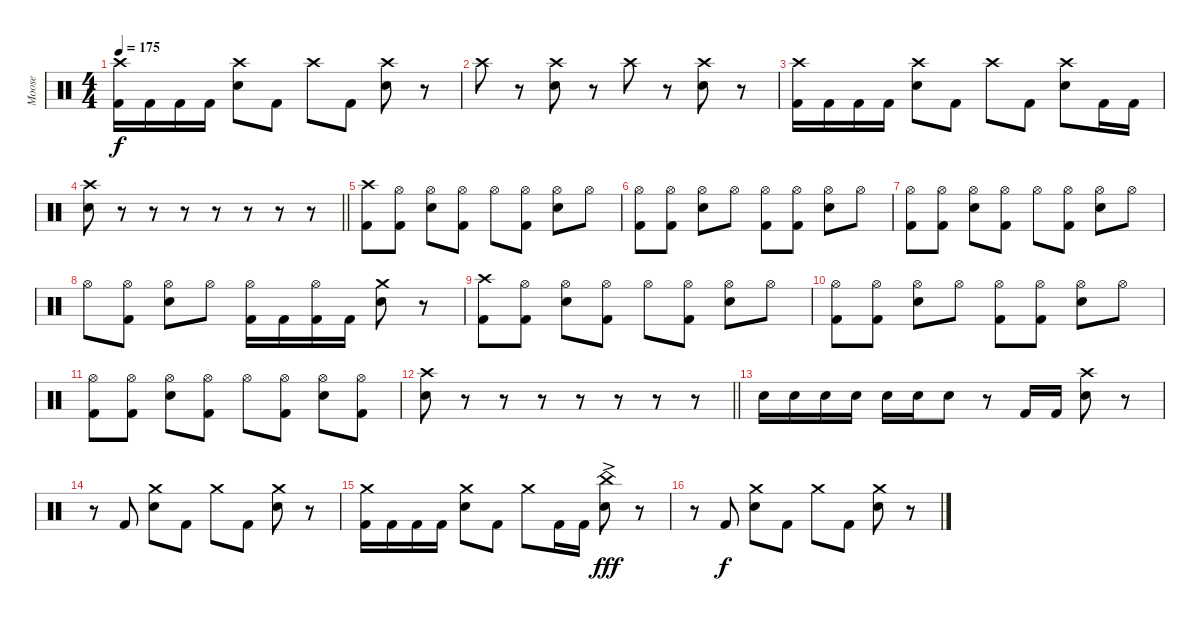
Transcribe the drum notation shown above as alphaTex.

\track ("Moose" "Moose") {instrument percussion}
\staff {score}
\articulation defaults
\ts (4 4)
\tempo 175
\clef neutral
\ks c
("Crash high (hit)" "Kick (hit) 2").16{dy f} "Kick (hit) 2".16 "Kick (hit) 2".16 "Kick (hit) 2".16 ("Crash high (hit)" "Electric Snare (hit)").8 "Kick (hit) 2".8 "Crash high (hit)".8 "Kick (hit) 2".8 ("Crash high (hit)" "Electric Snare (hit)").8 r.8 |
"Crash high (hit)".8 r.8 ("Crash high (hit)" "Electric Snare (hit)").8 r.8 "Crash high (hit)".8 r.8 ("Crash high (hit)" "Electric Snare (hit)").8 r.8 |
("Crash high (hit)" "Kick (hit) 2").16 "Kick (hit) 2".16 "Kick (hit) 2".16 "Kick (hit) 2".16 ("Crash high (hit)" "Electric Snare (hit)").8 "Kick (hit) 2".8 "Crash high (hit)".8 "Kick (hit) 2".8 ("Crash high (hit)" "Electric Snare (hit)").8 "Kick (hit) 2".16 "Kick (hit) 2".16 |
\barLineRight lightlight
("Crash high (hit)" "Electric Snare (hit)").8 r.8 r.8 r.8 r.8 r.8 r.8 r.8 |
("Crash high (hit)" "Kick (hit) 2").8 ("Hi-Hat (open)" "Kick (hit) 2").8 ("Hi-Hat (open)" "Electric Snare (hit)").8 ("Hi-Hat (open)" "Kick (hit) 2").8 "Hi-Hat (open)".8 ("Hi-Hat (open)" "Kick (hit) 2").8 ("Hi-Hat (open)" "Electric Snare (hit)").8 "Hi-Hat (open)".8 |
("Hi-Hat (open)" "Kick (hit) 2").8 ("Hi-Hat (open)" "Kick (hit) 2").8 ("Hi-Hat (open)" "Electric Snare (hit)").8 "Hi-Hat (open)".8 ("Hi-Hat (open)" "Kick (hit) 2").8 ("Hi-Hat (open)" "Kick (hit) 2").8 ("Hi-Hat (open)" "Electric Snare (hit)").8 "Hi-Hat (open)".8 |
("Hi-Hat (open)" "Kick (hit) 2").8 ("Hi-Hat (open)" "Kick (hit) 2").8 ("Hi-Hat (open)" "Electric Snare (hit)").8 ("Hi-Hat (open)" "Kick (hit) 2").8 "Hi-Hat (open)".8 ("Hi-Hat (open)" "Kick (hit) 2").8 ("Hi-Hat (open)" "Electric Snare (hit)").8 "Hi-Hat (open)".8 |
"Hi-Hat (open)".8 ("Hi-Hat (open)" "Kick (hit) 2").8 ("Hi-Hat (open)" "Electric Snare (hit)").8 "Hi-Hat (open)".8 ("Hi-Hat (open)" "Kick (hit) 2").16 "Kick (hit) 2".16 ("Hi-Hat (open)" "Kick (hit) 2").16 "Kick (hit) 2".16 ("Crash medium (hit)" "Electric Snare (hit)").8 r.8 |
("Crash high (hit)" "Kick (hit) 2").8 ("Hi-Hat (open)" "Kick (hit) 2").8 ("Hi-Hat (open)" "Electric Snare (hit)").8 ("Hi-Hat (open)" "Kick (hit) 2").8 "Hi-Hat (open)".8 ("Hi-Hat (open)" "Kick (hit) 2").8 ("Hi-Hat (open)" "Electric Snare (hit)").8 "Hi-Hat (open)".8 |
("Hi-Hat (open)" "Kick (hit) 2").8 ("Hi-Hat (open)" "Kick (hit) 2").8 ("Hi-Hat (open)" "Electric Snare (hit)").8 "Hi-Hat (open)".8 ("Hi-Hat (open)" "Kick (hit) 2").8 ("Hi-Hat (open)" "Kick (hit) 2").8 ("Hi-Hat (open)" "Electric Snare (hit)").8 "Hi-Hat (open)".8 |
("Hi-Hat (open)" "Kick (hit) 2").8 ("Hi-Hat (open)" "Kick (hit) 2").8 ("Hi-Hat (open)" "Electric Snare (hit)").8 ("Hi-Hat (open)" "Kick (hit) 2").8 "Hi-Hat (open)".8 ("Hi-Hat (open)" "Kick (hit) 2").8 ("Hi-Hat (open)" "Electric Snare (hit)").8 ("Hi-Hat (open)" "Kick (hit) 2").8 |
\barLineRight lightlight
("Crash high (hit)" "Electric Snare (hit)").8 r.8 r.8 r.8 r.8 r.8 r.8 r.8 |
"Electric Snare (hit)".16 "Electric Snare (hit)".16 "Electric Snare (hit)".16 "Electric Snare (hit)".16 "Electric Snare (hit)".16 "Electric Snare (hit)".16 "Electric Snare (hit)".8 r.8 "Kick (hit) 2".16 "Kick (hit) 2".16 ("Crash high (hit)" "Electric Snare (hit)").8 r.8 |
r.8 "Kick (hit) 2".8 ("Crash medium (hit)" "Electric Snare (hit)").8 "Kick (hit) 2".8 "Crash medium (hit)".8 "Kick (hit) 2".8 ("Crash medium (hit)" "Electric Snare (hit)").8 r.8 |
("Crash medium (hit)" "Kick (hit) 2").16 "Kick (hit) 2".16 "Kick (hit) 2".16 "Kick (hit) 2".16 ("Crash medium (hit)" "Electric Snare (hit)").8 "Kick (hit) 2".8 "Crash medium (hit)".8 "Kick (hit) 2".16 "Kick (hit) 2".16 ("China (hit)"{ac} "Electric Snare (hit)").8{dy fff} r.8 |
r.8 "Kick (hit) 2".8{dy f} ("Crash medium (hit)" "Electric Snare (hit)").8 "Kick (hit) 2".8 "Crash medium (hit)".8 "Kick (hit) 2".8 ("Crash medium (hit)" "Electric Snare (hit)").8 r.8
